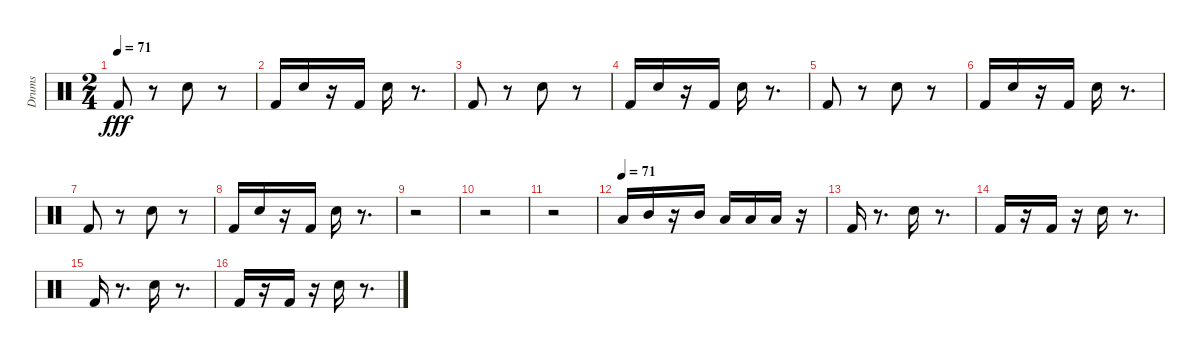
\track ("Drums" "Drums") {instrument percussion}
\staff {score}
\articulation defaults
\ts (2 4)
\tempo 71
\clef neutral
\ks c "Kick (hit) 2".8{dy fff}
r.8 "Snare (hit) 2".8 r.8 |
"Kick (hit) 2".16 "Snare (hit) 2".16 r.16 "Kick (hit) 2".16 "Snare (hit) 2".16 r.8{d} |
"Kick (hit) 2".8 r.8 "Snare (hit) 2".8 r.8 |
"Kick (hit) 2".16 "Snare (hit) 2".16 r.16 "Kick (hit) 2".16 "Snare (hit) 2".16 r.8{d} |
"Kick (hit) 2".8 r.8 "Snare (hit) 2".8 r.8 |
"Kick (hit) 2".16 "Snare (hit) 2".16 r.16 "Kick (hit) 2".16 "Snare (hit) 2".16 r.8{d} |
"Kick (hit) 2".8 r.8 "Snare (hit) 2".8 r.8 |
"Kick (hit) 2".16 "Snare (hit) 2".16 r.16 "Kick (hit) 2".16 "Snare (hit) 2".16 r.8{d} |
r.2 |
r.2 |
r.2 |
\tempo (71)
"Low Floor Tom (hit)".16 "Mid Tom (hit)".16 r.16 "Mid Tom (hit)".16 "Low Floor Tom (hit)".16 "Low Floor Tom (hit)".16 "Low Tom (hit)".16 r.16 |
"Kick (hit) 2".16 r.8{d} "Electric Snare (hit)".16 r.8{d} |
"Kick (hit) 2".16 r.16 "Kick (hit) 2".16 r.16 "Electric Snare (hit)".16 r.8{d} |
"Kick (hit) 2".16 r.8{d} "Electric Snare (hit)".16 r.8{d} |
"Kick (hit) 2".16 r.16 "Kick (hit) 2".16 r.16 "Electric Snare (hit)".16 r.8{d}
